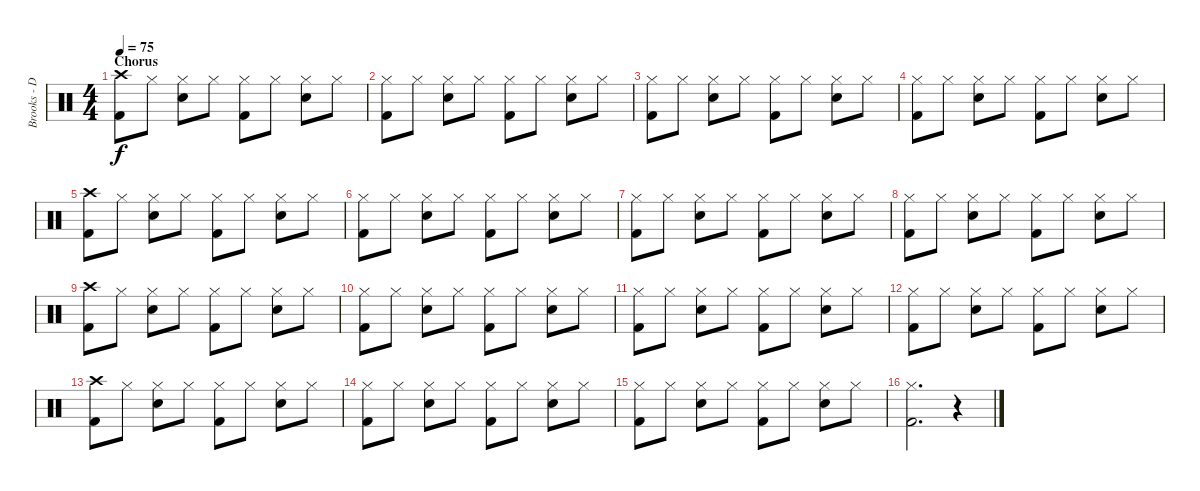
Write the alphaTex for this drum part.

\track ("Brooks - Drums" "Brooks - D") {instrument percussion}
\staff {score}
\articulation defaults
\ts (4 4)
\section ("" "Chorus ")
\tempo 75
\clef neutral
\ks c
("Kick (hit) 2" "Crash high (hit)").8{dy f} "Hi-Hat (closed)".8 ("Snare (hit) 2" "Hi-Hat (closed)").8 "Hi-Hat (closed)".8 ("Kick (hit) 2" "Hi-Hat (closed)").8 "Hi-Hat (closed)".8 ("Snare (hit) 2" "Hi-Hat (closed)").8 "Hi-Hat (closed)".8 |
("Kick (hit) 2" "Hi-Hat (closed)").8 "Hi-Hat (closed)".8 ("Snare (hit) 2" "Hi-Hat (closed)").8 "Hi-Hat (closed)".8 ("Kick (hit) 2" "Hi-Hat (closed)").8 "Hi-Hat (closed)".8 ("Snare (hit) 2" "Hi-Hat (closed)").8 "Hi-Hat (closed)".8 |
("Kick (hit) 2" "Hi-Hat (closed)").8 "Hi-Hat (closed)".8 ("Snare (hit) 2" "Hi-Hat (closed)").8 "Hi-Hat (closed)".8 ("Kick (hit) 2" "Hi-Hat (closed)").8 "Hi-Hat (closed)".8 ("Snare (hit) 2" "Hi-Hat (closed)").8 "Hi-Hat (closed)".8 |
("Kick (hit) 2" "Hi-Hat (closed)").8 "Hi-Hat (closed)".8 ("Snare (hit) 2" "Hi-Hat (closed)").8 "Hi-Hat (closed)".8 ("Kick (hit) 2" "Hi-Hat (closed)").8 "Hi-Hat (closed)".8 ("Snare (hit) 2" "Hi-Hat (closed)").8 "Hi-Hat (closed)".8 |
("Kick (hit) 2" "Crash high (hit)").8 "Hi-Hat (closed)".8 ("Snare (hit) 2" "Hi-Hat (closed)").8 "Hi-Hat (closed)".8 ("Kick (hit) 2" "Hi-Hat (closed)").8 "Hi-Hat (closed)".8 ("Snare (hit) 2" "Hi-Hat (closed)").8 "Hi-Hat (closed)".8 |
("Kick (hit) 2" "Hi-Hat (closed)").8 "Hi-Hat (closed)".8 ("Snare (hit) 2" "Hi-Hat (closed)").8 "Hi-Hat (closed)".8 ("Kick (hit) 2" "Hi-Hat (closed)").8 "Hi-Hat (closed)".8 ("Snare (hit) 2" "Hi-Hat (closed)").8 "Hi-Hat (closed)".8 |
("Kick (hit) 2" "Hi-Hat (closed)").8 "Hi-Hat (closed)".8 ("Snare (hit) 2" "Hi-Hat (closed)").8 "Hi-Hat (closed)".8 ("Kick (hit) 2" "Hi-Hat (closed)").8 "Hi-Hat (closed)".8 ("Snare (hit) 2" "Hi-Hat (closed)").8 "Hi-Hat (closed)".8 |
("Kick (hit) 2" "Hi-Hat (closed)").8 "Hi-Hat (closed)".8 ("Snare (hit) 2" "Hi-Hat (closed)").8 "Hi-Hat (closed)".8 ("Kick (hit) 2" "Hi-Hat (closed)").8 "Hi-Hat (closed)".8 ("Snare (hit) 2" "Hi-Hat (closed)").8 "Hi-Hat (closed)".8 |
("Kick (hit) 2" "Crash high (hit)").8 "Hi-Hat (closed)".8 ("Snare (hit) 2" "Hi-Hat (closed)").8 "Hi-Hat (closed)".8 ("Kick (hit) 2" "Hi-Hat (closed)").8 "Hi-Hat (closed)".8 ("Snare (hit) 2" "Hi-Hat (closed)").8 "Hi-Hat (closed)".8 |
("Kick (hit) 2" "Hi-Hat (closed)").8 "Hi-Hat (closed)".8 ("Snare (hit) 2" "Hi-Hat (closed)").8 "Hi-Hat (closed)".8 ("Kick (hit) 2" "Hi-Hat (closed)").8 "Hi-Hat (closed)".8 ("Snare (hit) 2" "Hi-Hat (closed)").8 "Hi-Hat (closed)".8 |
("Kick (hit) 2" "Hi-Hat (closed)").8 "Hi-Hat (closed)".8 ("Snare (hit) 2" "Hi-Hat (closed)").8 "Hi-Hat (closed)".8 ("Kick (hit) 2" "Hi-Hat (closed)").8 "Hi-Hat (closed)".8 ("Snare (hit) 2" "Hi-Hat (closed)").8 "Hi-Hat (closed)".8 |
("Kick (hit) 2" "Hi-Hat (closed)").8 "Hi-Hat (closed)".8 ("Snare (hit) 2" "Hi-Hat (closed)").8 "Hi-Hat (closed)".8 ("Kick (hit) 2" "Hi-Hat (closed)").8 "Hi-Hat (closed)".8 ("Snare (hit) 2" "Hi-Hat (closed)").8 "Hi-Hat (closed)".8 |
("Kick (hit) 2" "Crash high (hit)").8 "Hi-Hat (closed)".8 ("Snare (hit) 2" "Hi-Hat (closed)").8 "Hi-Hat (closed)".8 ("Kick (hit) 2" "Hi-Hat (closed)").8 "Hi-Hat (closed)".8 ("Snare (hit) 2" "Hi-Hat (closed)").8 "Hi-Hat (closed)".8 |
("Kick (hit) 2" "Hi-Hat (closed)").8 "Hi-Hat (closed)".8 ("Snare (hit) 2" "Hi-Hat (closed)").8 "Hi-Hat (closed)".8 ("Kick (hit) 2" "Hi-Hat (closed)").8 "Hi-Hat (closed)".8 ("Snare (hit) 2" "Hi-Hat (closed)").8 "Hi-Hat (closed)".8 |
("Kick (hit) 2" "Hi-Hat (closed)").8 "Hi-Hat (closed)".8 ("Snare (hit) 2" "Hi-Hat (closed)").8 "Hi-Hat (closed)".8 ("Kick (hit) 2" "Hi-Hat (closed)").8 "Hi-Hat (closed)".8 ("Snare (hit) 2" "Hi-Hat (closed)").8 "Hi-Hat (closed)".8 |
("Kick (hit) 2" "Hi-Hat (closed)").2{d} r.4
